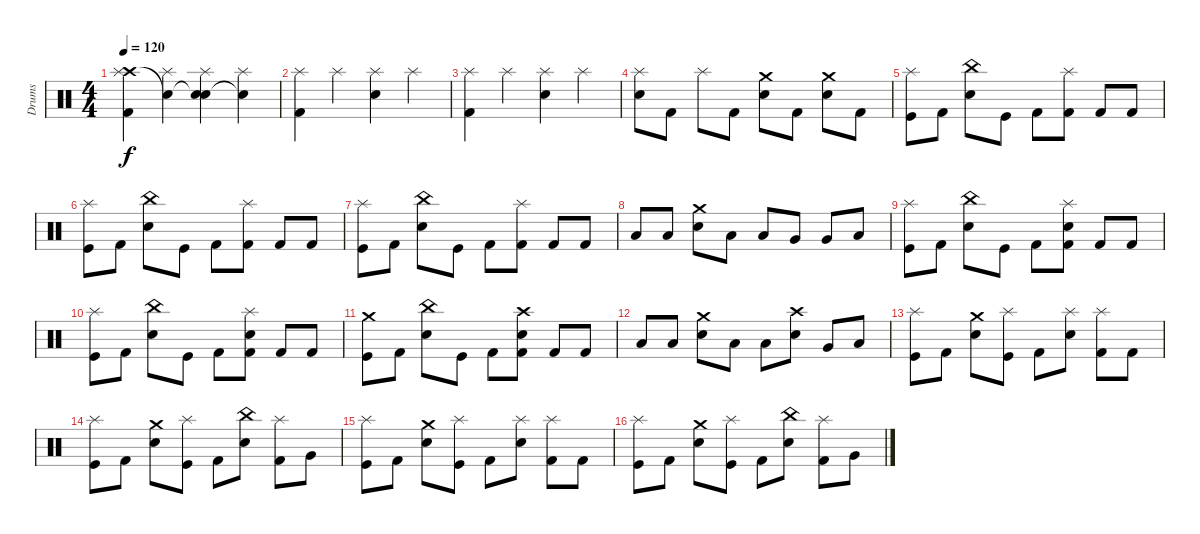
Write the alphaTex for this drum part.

\track ("Drums" "Drums") {instrument percussion}
\staff {score}
\articulation defaults
\ts (4 4)
\tempo 120
\clef neutral
\ks c
("Crash high (hit)" "Splash (hit)" "Kick (hit) 2").4{dy f} ("Snare (hit)"{t} "Splash (hit)").4 ("Snare (hit)"{t} "Splash (hit)" "Snare (hit) 2").4 ("Snare (hit)"{t} "Splash (hit)").4 |
("Splash (hit)" "Kick (hit) 2").4 "Splash (hit)".4 ("Splash (hit)" "Snare (hit) 2").4 "Splash (hit)".4 |
("Splash (hit)" "Kick (hit) 2").4 "Splash (hit)".4 ("Splash (hit)" "Snare (hit) 2").4 "Splash (hit)".4 |
("Splash (hit)" "Snare (hit) 2").8 "Kick (hit) 2".8 "Splash (hit)".8 "Kick (hit) 2".8 ("Crash medium (hit)" "Snare (hit) 2").8 "Kick (hit) 2".8 ("Crash medium (hit)" "Snare (hit) 2").8 "Kick (hit) 2".8 |
("Splash (hit)" "Kick (hit)").8 "Kick (hit) 2".8 ("China (hit)" "Snare (hit) 2").8 "Kick (hit)".8 "Kick (hit) 2".8 ("Splash (hit)" "Kick (hit) 2").8 "Kick (hit) 2".8 "Kick (hit) 2".8 |
("Splash (hit)" "Kick (hit)").8 "Kick (hit) 2".8 ("China (hit)" "Snare (hit) 2").8 "Kick (hit)".8 "Kick (hit) 2".8 ("Splash (hit)" "Kick (hit) 2").8 "Kick (hit) 2".8 "Kick (hit) 2".8 |
("Splash (hit)" "Kick (hit)").8 "Kick (hit) 2".8 ("China (hit)" "Snare (hit) 2").8 "Kick (hit)".8 "Kick (hit) 2".8 ("Splash (hit)" "Kick (hit) 2").8 "Kick (hit) 2".8 "Kick (hit) 2".8 |
"Low Tom (hit)".8 "Low Tom (hit)".8 ("Crash medium (hit)" "Snare (hit) 2").8 "Low Tom (hit)".8 "Low Tom (hit)".8 "Very Low Tom (hit)".8 "Very Low Tom (hit)".8 "Low Floor Tom (hit)".8 |
("Splash (hit)" "Kick (hit)").8 "Kick (hit) 2".8 ("China (hit)" "Snare (hit) 2").8 "Kick (hit)".8 "Kick (hit) 2".8 ("Splash (hit)" "Snare (hit) 2" "Kick (hit) 2").8 "Kick (hit) 2".8 "Kick (hit) 2".8 |
("Splash (hit)" "Kick (hit)").8 "Kick (hit) 2".8 ("China (hit)" "Snare (hit) 2").8 "Kick (hit)".8 "Kick (hit) 2".8 ("Splash (hit)" "Snare (hit) 2" "Kick (hit) 2").8 "Kick (hit) 2".8 "Kick (hit) 2".8 |
("Crash medium (hit)" "Kick (hit)").8 "Kick (hit) 2".8 ("China (hit)" "Snare (hit) 2").8 "Kick (hit)".8 "Kick (hit) 2".8 ("Crash high (hit)" "Snare (hit) 2" "Kick (hit) 2").8 "Kick (hit) 2".8 "Kick (hit) 2".8 |
"Low Tom (hit)".8 "Low Tom (hit)".8 ("Crash medium (hit)" "Snare (hit) 2").8 "Low Tom (hit)".8 "Low Tom (hit)".8 ("Crash high (hit)" "Snare (hit) 2").8 "Very Low Tom (hit)".8 "Low Floor Tom (hit)".8 |
("Splash (hit)" "Kick (hit)").8 "Kick (hit) 2".8 ("Crash medium (hit)" "Snare (hit) 2").8 ("Splash (hit)" "Kick (hit)").8 "Kick (hit) 2".8 ("Splash (hit)" "Snare (hit) 2").8 ("Splash (hit)" "Kick (hit) 2").8 "Kick (hit) 2".8 |
("Splash (hit)" "Kick (hit)").8 "Kick (hit) 2".8 ("Crash medium (hit)" "Snare (hit) 2").8 ("Splash (hit)" "Kick (hit)").8 "Kick (hit) 2".8 ("China (hit)" "Snare (hit) 2").8 ("Splash (hit)" "Kick (hit) 2").8 "Very Low Tom (hit)".8 |
("Splash (hit)" "Kick (hit)").8 "Kick (hit) 2".8 ("Crash medium (hit)" "Snare (hit) 2").8 ("Splash (hit)" "Kick (hit)").8 "Kick (hit) 2".8 ("Splash (hit)" "Snare (hit) 2").8 ("Splash (hit)" "Kick (hit) 2").8 "Kick (hit) 2".8 |
("Splash (hit)" "Kick (hit)").8 "Kick (hit) 2".8 ("Crash medium (hit)" "Snare (hit) 2").8 ("Splash (hit)" "Kick (hit)").8 "Kick (hit) 2".8 ("China (hit)" "Snare (hit) 2").8 ("Splash (hit)" "Kick (hit) 2").8 "Very Low Tom (hit)".8
